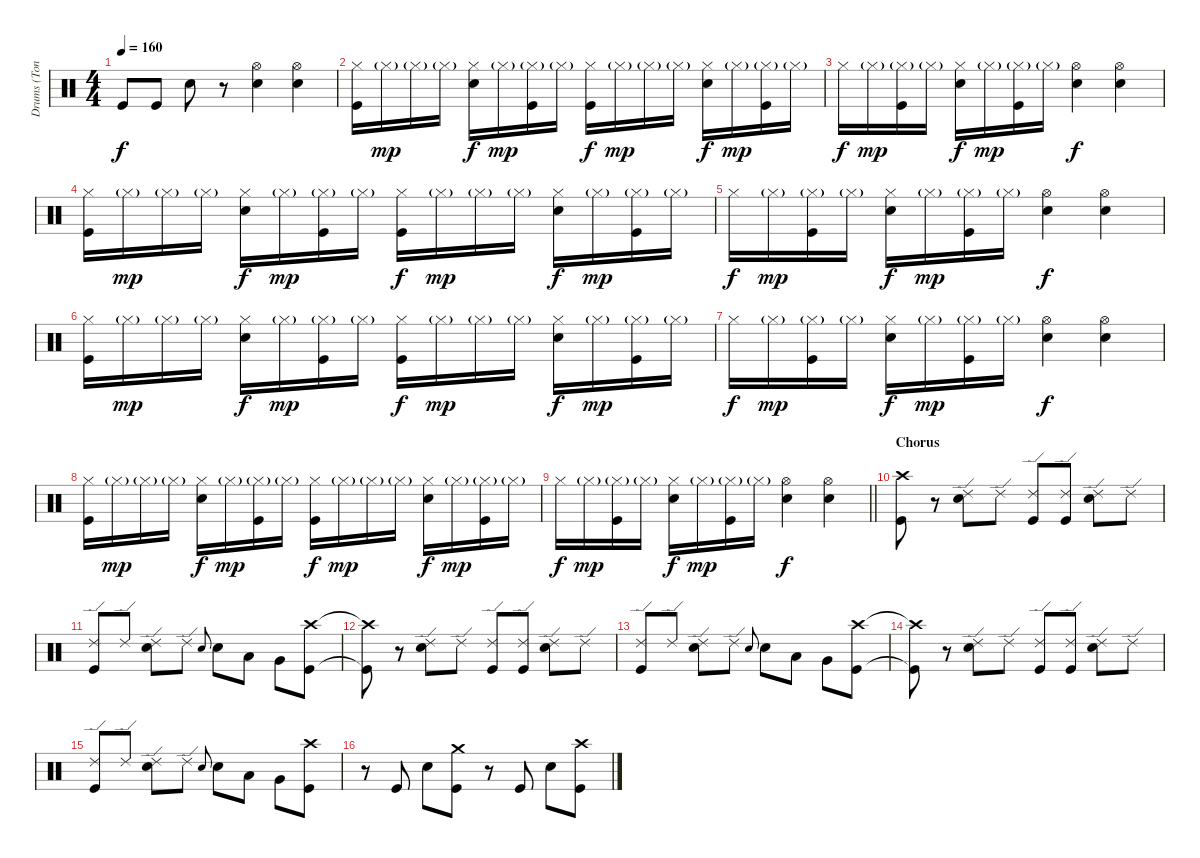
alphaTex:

\track ("Drums (Tony)" "Drums (Ton") {instrument percussion}
\staff {score}
\articulation defaults
\ts (4 4)
\tempo 160
\clef neutral
\ks c "Kick (hit)".8{dy f} "Kick (hit)".8 "Snare (hit) 2".8
r.8 ("Hi-Hat (open)" "Snare (hit) 2").4 ("Hi-Hat (open)" "Snare (hit) 2").4 |
("Hi-Hat (closed)" "Kick (hit)").16 "Hi-Hat (closed)"{g}.16{dy mp} "Hi-Hat (closed)"{g}.16 "Hi-Hat (closed)"{g}.16 ("Hi-Hat (closed)" "Snare (hit) 2").16{dy f} "Hi-Hat (closed)"{g}.16{dy mp} ("Hi-Hat (closed)"{g} "Kick (hit)").16 "Hi-Hat (closed)"{g}.16 ("Hi-Hat (closed)" "Kick (hit)").16{dy f} "Hi-Hat (closed)"{g}.16{dy mp} "Hi-Hat (closed)"{g}.16 "Hi-Hat (closed)"{g}.16 ("Hi-Hat (closed)" "Snare (hit) 2").16{dy f} "Hi-Hat (closed)"{g}.16{dy mp} ("Hi-Hat (closed)"{g} "Kick (hit)").16 "Hi-Hat (closed)"{g}.16 |
"Hi-Hat (closed)".16{dy f} "Hi-Hat (closed)"{g}.16{dy mp} ("Hi-Hat (closed)"{g} "Kick (hit)").16 "Hi-Hat (closed)"{g}.16 ("Hi-Hat (closed)" "Snare (hit) 2").16{dy f} "Hi-Hat (closed)"{g}.16{dy mp} ("Hi-Hat (closed)"{g} "Kick (hit)").16 "Hi-Hat (closed)"{g}.16 ("Hi-Hat (open)" "Snare (hit) 2").4{dy f} ("Hi-Hat (open)" "Snare (hit) 2").4 |
("Hi-Hat (closed)" "Kick (hit)").16 "Hi-Hat (closed)"{g}.16{dy mp} "Hi-Hat (closed)"{g}.16 "Hi-Hat (closed)"{g}.16 ("Hi-Hat (closed)" "Snare (hit) 2").16{dy f} "Hi-Hat (closed)"{g}.16{dy mp} ("Hi-Hat (closed)"{g} "Kick (hit)").16 "Hi-Hat (closed)"{g}.16 ("Hi-Hat (closed)" "Kick (hit)").16{dy f} "Hi-Hat (closed)"{g}.16{dy mp} "Hi-Hat (closed)"{g}.16 "Hi-Hat (closed)"{g}.16 ("Hi-Hat (closed)" "Snare (hit) 2").16{dy f} "Hi-Hat (closed)"{g}.16{dy mp} ("Hi-Hat (closed)"{g} "Kick (hit)").16 "Hi-Hat (closed)"{g}.16 |
"Hi-Hat (closed)".16{dy f} "Hi-Hat (closed)"{g}.16{dy mp} ("Hi-Hat (closed)"{g} "Kick (hit)").16 "Hi-Hat (closed)"{g}.16 ("Hi-Hat (closed)" "Snare (hit) 2").16{dy f} "Hi-Hat (closed)"{g}.16{dy mp} ("Hi-Hat (closed)"{g} "Kick (hit)").16 "Hi-Hat (closed)"{g}.16 ("Hi-Hat (open)" "Snare (hit) 2").4{dy f} ("Hi-Hat (open)" "Snare (hit) 2").4 |
("Hi-Hat (closed)" "Kick (hit)").16 "Hi-Hat (closed)"{g}.16{dy mp} "Hi-Hat (closed)"{g}.16 "Hi-Hat (closed)"{g}.16 ("Hi-Hat (closed)" "Snare (hit) 2").16{dy f} "Hi-Hat (closed)"{g}.16{dy mp} ("Hi-Hat (closed)"{g} "Kick (hit)").16 "Hi-Hat (closed)"{g}.16 ("Hi-Hat (closed)" "Kick (hit)").16{dy f} "Hi-Hat (closed)"{g}.16{dy mp} "Hi-Hat (closed)"{g}.16 "Hi-Hat (closed)"{g}.16 ("Hi-Hat (closed)" "Snare (hit) 2").16{dy f} "Hi-Hat (closed)"{g}.16{dy mp} ("Hi-Hat (closed)"{g} "Kick (hit)").16 "Hi-Hat (closed)"{g}.16 |
"Hi-Hat (closed)".16{dy f} "Hi-Hat (closed)"{g}.16{dy mp} ("Hi-Hat (closed)"{g} "Kick (hit)").16 "Hi-Hat (closed)"{g}.16 ("Hi-Hat (closed)" "Snare (hit) 2").16{dy f} "Hi-Hat (closed)"{g}.16{dy mp} ("Hi-Hat (closed)"{g} "Kick (hit)").16 "Hi-Hat (closed)"{g}.16 ("Hi-Hat (open)" "Snare (hit) 2").4{dy f} ("Hi-Hat (open)" "Snare (hit) 2").4 |
("Hi-Hat (closed)" "Kick (hit)").16 "Hi-Hat (closed)"{g}.16{dy mp} "Hi-Hat (closed)"{g}.16 "Hi-Hat (closed)"{g}.16 ("Hi-Hat (closed)" "Snare (hit) 2").16{dy f} "Hi-Hat (closed)"{g}.16{dy mp} ("Hi-Hat (closed)"{g} "Kick (hit)").16 "Hi-Hat (closed)"{g}.16 ("Hi-Hat (closed)" "Kick (hit)").16{dy f} "Hi-Hat (closed)"{g}.16{dy mp} "Hi-Hat (closed)"{g}.16 "Hi-Hat (closed)"{g}.16 ("Hi-Hat (closed)" "Snare (hit) 2").16{dy f} "Hi-Hat (closed)"{g}.16{dy mp} ("Hi-Hat (closed)"{g} "Kick (hit)").16 "Hi-Hat (closed)"{g}.16 |
\barLineRight lightlight "Hi-Hat (closed)".16{dy f} "Hi-Hat (closed)"{g}.16{dy mp}
("Hi-Hat (closed)"{g} "Kick (hit)").16 "Hi-Hat (closed)"{g}.16 ("Hi-Hat (closed)" "Snare (hit) 2").16{dy f} "Hi-Hat (closed)"{g}.16{dy mp} ("Hi-Hat (closed)"{g} "Kick (hit)").16 "Hi-Hat (closed)"{g}.16 ("Hi-Hat (open)" "Snare (hit) 2").4{dy f} ("Hi-Hat (open)" "Snare (hit) 2").4 |
\section ("" "Chorus")
("Crash high (hit)" "Kick (hit)").8 r.8 ("Ride (edge) 2" "Snare (hit) 2").8 "Ride (edge) 2".8 ("Ride (edge) 2" "Kick (hit)").8 ("Ride (edge) 2" "Kick (hit)").8 ("Ride (edge) 2" "Snare (hit) 2").8 "Ride (edge) 2".8 |
("Ride (edge) 2" "Kick (hit)").8 "Ride (edge) 2".8 ("Ride (edge) 2" "Snare (hit) 2").8 "Ride (edge) 2".8 "Snare (hit) 2".8{gr onbeat} "Snare (hit) 2".8 "Low Tom (hit)".8 "Very Low Tom (hit)".8 ("Crash high (hit)" "Kick (hit)").8 |
("Crash high (hit)"{t} "Kick (hit)"{t}).8 r.8 ("Ride (edge) 2" "Snare (hit) 2").8 "Ride (edge) 2".8 ("Ride (edge) 2" "Kick (hit)").8 ("Ride (edge) 2" "Kick (hit)").8 ("Ride (edge) 2" "Snare (hit) 2").8 "Ride (edge) 2".8 |
("Ride (edge) 2" "Kick (hit)").8 "Ride (edge) 2".8 ("Ride (edge) 2" "Snare (hit) 2").8 "Ride (edge) 2".8 "Snare (hit) 2".8{gr onbeat} "Snare (hit) 2".8 "Low Tom (hit)".8 "Very Low Tom (hit)".8 ("Crash high (hit)" "Kick (hit)").8 |
("Crash high (hit)"{t} "Kick (hit)"{t}).8 r.8 ("Ride (edge) 2" "Snare (hit) 2").8 "Ride (edge) 2".8 ("Ride (edge) 2" "Kick (hit)").8 ("Ride (edge) 2" "Kick (hit)").8 ("Ride (edge) 2" "Snare (hit) 2").8 "Ride (edge) 2".8 |
("Ride (edge) 2" "Kick (hit)").8 "Ride (edge) 2".8 ("Ride (edge) 2" "Snare (hit) 2").8 "Ride (edge) 2".8 "Snare (hit) 2".8{gr onbeat} "Snare (hit) 2".8 "Low Tom (hit)".8 "Very Low Tom (hit)".8 ("Crash high (hit)" "Kick (hit)").8 |
r.8 "Kick (hit)".8 "Snare (hit) 2".8 ("Crash medium (hit)" "Kick (hit)").8 r.8 "Kick (hit)".8 "Snare (hit) 2".8 ("Crash high (hit)" "Kick (hit)").8
